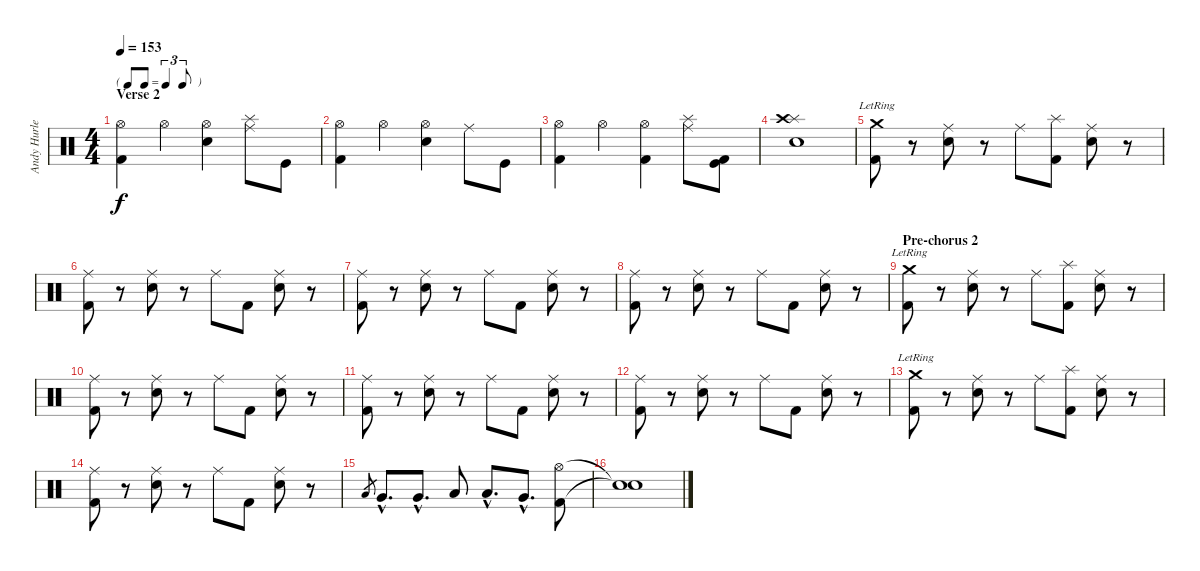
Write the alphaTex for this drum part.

\track ("Andy Hurley" "Andy Hurle") {instrument percussion}
\staff {score}
\articulation defaults
\ts (4 4)
\tf triplet8th
\section ("" "Verse 2")
\tempo 153
\clef neutral
\ks c
("Hi-Hat (open)" "Kick (hit) 2").4{dy f} "Hi-Hat (open)".4 ("Hi-Hat (open)" "Electric Snare (hit)").4 ("Ride (middle)" "Splash (hit)").8 "Kick (hit)".8 |
("Hi-Hat (open)" "Kick (hit) 2").4 "Hi-Hat (open)".4 ("Hi-Hat (open)" "Electric Snare (hit)").4 "Ride (middle)".8 "Kick (hit)".8 |
("Hi-Hat (open)" "Kick (hit) 2").4 "Hi-Hat (open)".4 ("Hi-Hat (open)" "Kick (hit) 2").4 ("Ride (middle)" "Splash (hit)").8 ("Kick (hit)" "Kick (hit) 2").8 |
("Splash (hit)" "Crash high (hit)" "Electric Snare (hit)").1 |
("Crash medium (hit)"{lr} "Kick (hit) 2").8 r.8 ("Ride (middle)" "Electric Snare (hit)").8 r.8 "Ride (middle)".8 ("Splash (hit)" "Kick (hit) 2").8 ("Ride (middle)" "Electric Snare (hit)").8 r.8 |
("Ride (middle)" "Kick (hit) 2").8 r.8 ("Ride (middle)" "Electric Snare (hit)").8 r.8 "Ride (middle)".8 "Kick (hit) 2".8 ("Ride (middle)" "Electric Snare (hit)").8 r.8 |
("Ride (middle)" "Kick (hit) 2").8 r.8 ("Ride (middle)" "Electric Snare (hit)").8 r.8 "Ride (middle)".8 "Kick (hit) 2".8 ("Ride (middle)" "Electric Snare (hit)").8 r.8 |
("Ride (middle)" "Kick (hit) 2").8 r.8 ("Ride (middle)" "Electric Snare (hit)").8 r.8 "Ride (middle)".8 "Kick (hit) 2".8 ("Ride (middle)" "Electric Snare (hit)").8 r.8 |
\section ("" "Pre-chorus 2")
("Crash medium (hit)"{lr} "Kick (hit) 2").8 r.8 ("Ride (middle)" "Electric Snare (hit)").8 r.8 "Ride (middle)".8 ("Splash (hit)" "Kick (hit) 2").8 ("Ride (middle)" "Electric Snare (hit)").8 r.8 |
("Ride (middle)" "Kick (hit) 2").8 r.8 ("Ride (middle)" "Electric Snare (hit)").8 r.8 "Ride (middle)".8 "Kick (hit) 2".8 ("Ride (middle)" "Electric Snare (hit)").8 r.8 |
("Ride (middle)" "Kick (hit) 2").8 r.8 ("Ride (middle)" "Electric Snare (hit)").8 r.8 "Ride (middle)".8 "Kick (hit) 2".8 ("Ride (middle)" "Electric Snare (hit)").8 r.8 |
("Ride (middle)" "Kick (hit) 2").8 r.8 ("Ride (middle)" "Electric Snare (hit)").8 r.8 "Ride (middle)".8 "Kick (hit) 2".8 ("Ride (middle)" "Electric Snare (hit)").8 r.8 |
("Crash medium (hit)"{lr} "Kick (hit) 2").8 r.8 ("Ride (middle)" "Electric Snare (hit)").8 r.8 "Ride (middle)".8 ("Splash (hit)" "Kick (hit) 2").8 ("Ride (middle)" "Electric Snare (hit)").8 r.8 |
("Ride (middle)" "Kick (hit) 2").8 r.8 ("Ride (middle)" "Electric Snare (hit)").8 r.8 "Ride (middle)".8 "Kick (hit) 2".8 ("Ride (middle)" "Electric Snare (hit)").8 r.8 |
"Low Floor Tom (hit)".8{gr} "Very Low Tom (hit)"{hac}.8{d} "Very Low Tom (hit)"{hac}.8{d} "Low Floor Tom (hit)".8 "Low Tom (hit)"{hac}.8{d} "Very Low Tom (hit)"{hac}.8{d} ("Hi-Hat (open)" "Kick (hit) 2").8 |
("Snare (hit)"{t} "Snare (hit)"{t}).1
